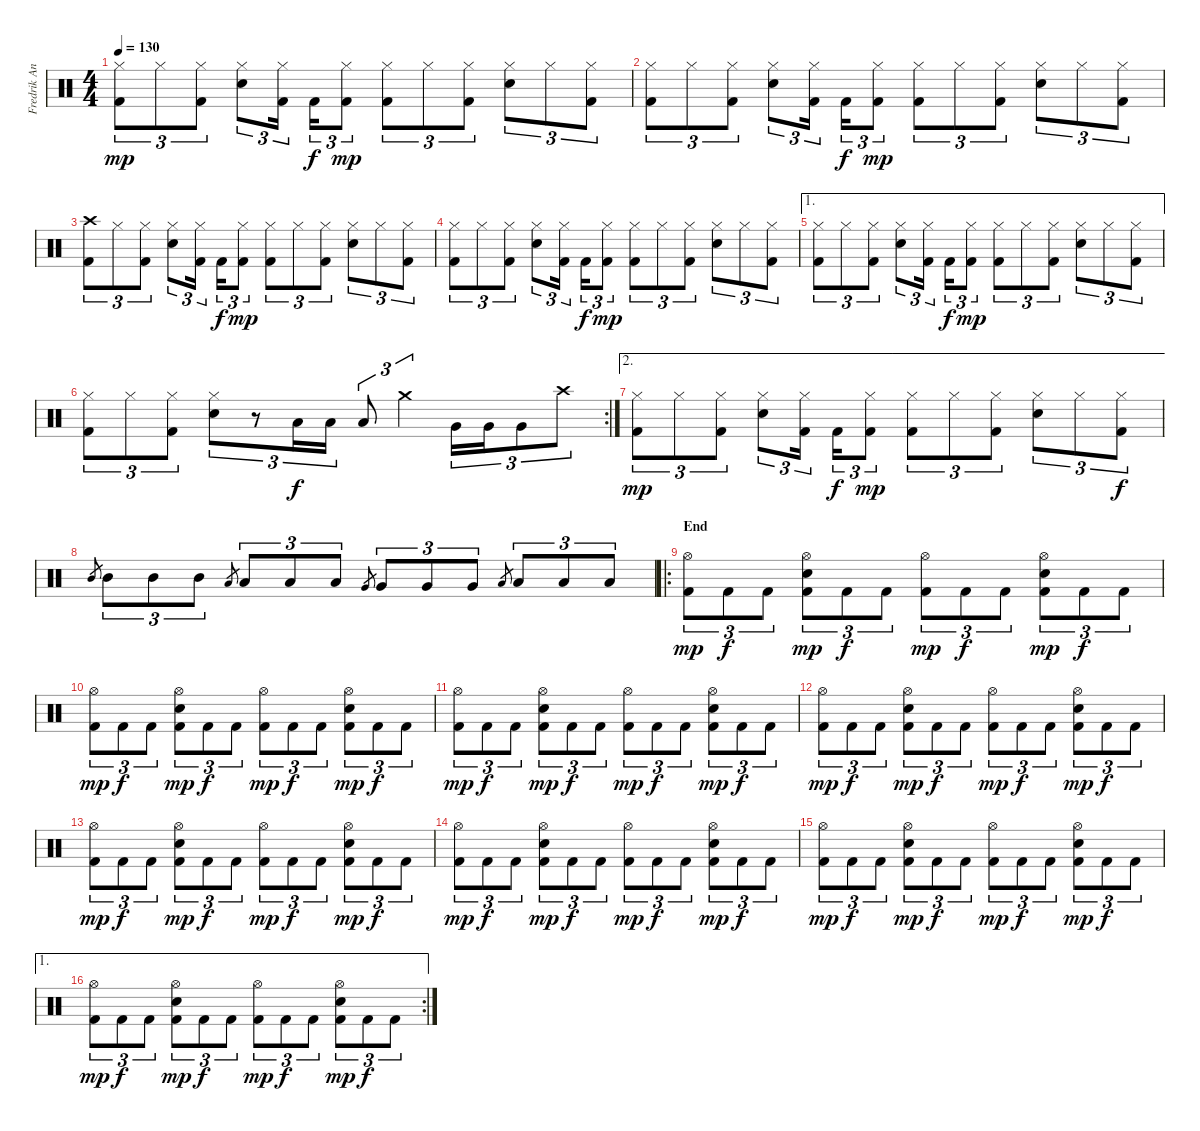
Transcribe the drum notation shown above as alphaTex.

\track ("Fredrik Andersson" "Fredrik An") {instrument percussion}
\staff {score}
\articulation defaults
\ts (4 4)
\tempo 130
\clef neutral
\ks c
("Hi-Hat (closed)" "Kick (hit) 2").8{tu (3 2) dy mp} "Hi-Hat (closed)".8{tu (3 2)} ("Hi-Hat (closed)" "Kick (hit) 2").8{tu (3 2)} ("Hi-Hat (closed)" "Snare (hit) 2").8{tu (3 2)} ("Hi-Hat (closed)" "Kick (hit) 2").16{tu (3 2)} "Kick (hit) 2".16{tu (3 2) dy f} ("Hi-Hat (closed)" "Kick (hit) 2").8{tu (3 2) dy mp} ("Hi-Hat (closed)" "Kick (hit) 2").8{tu (3 2)} "Hi-Hat (closed)".8{tu (3 2)} ("Hi-Hat (closed)" "Kick (hit) 2").8{tu (3 2)} ("Hi-Hat (closed)" "Snare (hit) 2").8{tu (3 2)} "Hi-Hat (closed)".8{tu (3 2)} ("Hi-Hat (closed)" "Kick (hit) 2").8{tu (3 2)} |
("Hi-Hat (closed)" "Kick (hit) 2").8{tu (3 2)} "Hi-Hat (closed)".8{tu (3 2)} ("Hi-Hat (closed)" "Kick (hit) 2").8{tu (3 2)} ("Hi-Hat (closed)" "Snare (hit) 2").8{tu (3 2)} ("Hi-Hat (closed)" "Kick (hit) 2").16{tu (3 2)} "Kick (hit) 2".16{tu (3 2) dy f} ("Hi-Hat (closed)" "Kick (hit) 2").8{tu (3 2) dy mp} ("Hi-Hat (closed)" "Kick (hit) 2").8{tu (3 2)} "Hi-Hat (closed)".8{tu (3 2)} ("Hi-Hat (closed)" "Kick (hit) 2").8{tu (3 2)} ("Hi-Hat (closed)" "Snare (hit) 2").8{tu (3 2)} "Hi-Hat (closed)".8{tu (3 2)} ("Hi-Hat (closed)" "Kick (hit) 2").8{tu (3 2)} |
("Crash high (hit)" "Kick (hit) 2").8{tu (3 2)} "Hi-Hat (closed)".8{tu (3 2)} ("Hi-Hat (closed)" "Kick (hit) 2").8{tu (3 2)} ("Hi-Hat (closed)" "Snare (hit) 2").8{tu (3 2)} ("Hi-Hat (closed)" "Kick (hit) 2").16{tu (3 2)} "Kick (hit) 2".16{tu (3 2) dy f} ("Hi-Hat (closed)" "Kick (hit) 2").8{tu (3 2) dy mp} ("Hi-Hat (closed)" "Kick (hit) 2").8{tu (3 2)} "Hi-Hat (closed)".8{tu (3 2)} ("Hi-Hat (closed)" "Kick (hit) 2").8{tu (3 2)} ("Hi-Hat (closed)" "Snare (hit) 2").8{tu (3 2)} "Hi-Hat (closed)".8{tu (3 2)} ("Hi-Hat (closed)" "Kick (hit) 2").8{tu (3 2)} |
("Hi-Hat (closed)" "Kick (hit) 2").8{tu (3 2)} "Hi-Hat (closed)".8{tu (3 2)} ("Hi-Hat (closed)" "Kick (hit) 2").8{tu (3 2)} ("Hi-Hat (closed)" "Snare (hit) 2").8{tu (3 2)} ("Hi-Hat (closed)" "Kick (hit) 2").16{tu (3 2)} "Kick (hit) 2".16{tu (3 2) dy f} ("Hi-Hat (closed)" "Kick (hit) 2").8{tu (3 2) dy mp} ("Hi-Hat (closed)" "Kick (hit) 2").8{tu (3 2)} "Hi-Hat (closed)".8{tu (3 2)} ("Hi-Hat (closed)" "Kick (hit) 2").8{tu (3 2)} ("Hi-Hat (closed)" "Snare (hit) 2").8{tu (3 2)} "Hi-Hat (closed)".8{tu (3 2)} ("Hi-Hat (closed)" "Kick (hit) 2").8{tu (3 2)} |
\ae 1
("Hi-Hat (closed)" "Kick (hit) 2").8{tu (3 2)} "Hi-Hat (closed)".8{tu (3 2)} ("Hi-Hat (closed)" "Kick (hit) 2").8{tu (3 2)} ("Hi-Hat (closed)" "Snare (hit) 2").8{tu (3 2)} ("Hi-Hat (closed)" "Kick (hit) 2").16{tu (3 2)} "Kick (hit) 2".16{tu (3 2) dy f} ("Hi-Hat (closed)" "Kick (hit) 2").8{tu (3 2) dy mp} ("Hi-Hat (closed)" "Kick (hit) 2").8{tu (3 2)} "Hi-Hat (closed)".8{tu (3 2)} ("Hi-Hat (closed)" "Kick (hit) 2").8{tu (3 2)} ("Hi-Hat (closed)" "Snare (hit) 2").8{tu (3 2)} "Hi-Hat (closed)".8{tu (3 2)} ("Hi-Hat (closed)" "Kick (hit) 2").8{tu (3 2)} |
\rc 2
("Hi-Hat (closed)" "Kick (hit) 2").8{tu (3 2)} "Hi-Hat (closed)".8{tu (3 2)} ("Hi-Hat (closed)" "Kick (hit) 2").8{tu (3 2)} ("Hi-Hat (closed)" "Snare (hit) 2").8{tu (3 2)} r.8{tu (3 2)} "Low Tom (hit)".16{tu (3 2) dy f} "Low Tom (hit)".16{tu (3 2)} "Low Tom (hit)".8{tu (3 2)} "Crash medium (hit)".4{tu (3 2)} "Very Low Tom (hit)".16{tu (3 2)} "Very Low Tom (hit)".16{tu (3 2)} "Very Low Tom (hit)".8{tu (3 2)} "Crash high (hit)".8{tu (3 2)} |
\ae 2
("Hi-Hat (closed)" "Kick (hit) 2").8{tu (3 2) dy mp} "Hi-Hat (closed)".8{tu (3 2)} ("Hi-Hat (closed)" "Kick (hit) 2").8{tu (3 2)} ("Hi-Hat (closed)" "Snare (hit) 2").8{tu (3 2)} ("Hi-Hat (closed)" "Kick (hit) 2").16{tu (3 2)} "Kick (hit) 2".16{tu (3 2) dy f} ("Hi-Hat (closed)" "Kick (hit) 2").8{tu (3 2) dy mp} ("Hi-Hat (closed)" "Kick (hit) 2").8{tu (3 2)} "Hi-Hat (closed)".8{tu (3 2)} ("Hi-Hat (closed)" "Kick (hit) 2").8{tu (3 2)} ("Hi-Hat (closed)" "Snare (hit) 2").8{tu (3 2)} "Hi-Hat (closed)".8{tu (3 2)} ("Hi-Hat (closed)" "Kick (hit) 2").8{tu (3 2) dy f} |
"Mid Tom (hit)".8{gr} "Mid Tom (hit)".8{tu (3 2)} "Mid Tom (hit)".8{tu (3 2)} "Mid Tom (hit)".8{tu (3 2)} "Low Tom (hit)".8{gr} "Low Tom (hit)".8{tu (3 2)} "Low Tom (hit)".8{tu (3 2)} "Low Tom (hit)".8{tu (3 2)} "Very Low Tom (hit)".8{gr} "Very Low Tom (hit)".8{tu (3 2)} "Very Low Tom (hit)".8{tu (3 2)} "Very Low Tom (hit)".8{tu (3 2)} "Low Floor Tom (hit)".8{gr} "Low Floor Tom (hit)".8{tu (3 2)} "Low Floor Tom (hit)".8{tu (3 2)} "Low Floor Tom (hit)".8{tu (3 2)} |
\ro
\section ("" "End")
("Hi-Hat (open)" "Kick (hit) 2").8{tu (3 2) dy mp} "Kick (hit) 2".8{tu (3 2) dy f} "Kick (hit) 2".8{tu (3 2)} ("Hi-Hat (open)" "Snare (hit) 2" "Kick (hit) 2").8{tu (3 2) dy mp} "Kick (hit) 2".8{tu (3 2) dy f} "Kick (hit) 2".8{tu (3 2)} ("Hi-Hat (open)" "Kick (hit) 2").8{tu (3 2) dy mp} "Kick (hit) 2".8{tu (3 2) dy f} "Kick (hit) 2".8{tu (3 2)} ("Hi-Hat (open)" "Snare (hit) 2" "Kick (hit) 2").8{tu (3 2) dy mp} "Kick (hit) 2".8{tu (3 2) dy f} "Kick (hit) 2".8{tu (3 2)} |
("Hi-Hat (open)" "Kick (hit) 2").8{tu (3 2) dy mp} "Kick (hit) 2".8{tu (3 2) dy f} "Kick (hit) 2".8{tu (3 2)} ("Hi-Hat (open)" "Snare (hit) 2" "Kick (hit) 2").8{tu (3 2) dy mp} "Kick (hit) 2".8{tu (3 2) dy f} "Kick (hit) 2".8{tu (3 2)} ("Hi-Hat (open)" "Kick (hit) 2").8{tu (3 2) dy mp} "Kick (hit) 2".8{tu (3 2) dy f} "Kick (hit) 2".8{tu (3 2)} ("Hi-Hat (open)" "Snare (hit) 2" "Kick (hit) 2").8{tu (3 2) dy mp} "Kick (hit) 2".8{tu (3 2) dy f} "Kick (hit) 2".8{tu (3 2)} |
("Hi-Hat (open)" "Kick (hit) 2").8{tu (3 2) dy mp} "Kick (hit) 2".8{tu (3 2) dy f} "Kick (hit) 2".8{tu (3 2)} ("Hi-Hat (open)" "Snare (hit) 2" "Kick (hit) 2").8{tu (3 2) dy mp} "Kick (hit) 2".8{tu (3 2) dy f} "Kick (hit) 2".8{tu (3 2)} ("Hi-Hat (open)" "Kick (hit) 2").8{tu (3 2) dy mp} "Kick (hit) 2".8{tu (3 2) dy f} "Kick (hit) 2".8{tu (3 2)} ("Hi-Hat (open)" "Snare (hit) 2" "Kick (hit) 2").8{tu (3 2) dy mp} "Kick (hit) 2".8{tu (3 2) dy f} "Kick (hit) 2".8{tu (3 2)} |
("Hi-Hat (open)" "Kick (hit) 2").8{tu (3 2) dy mp} "Kick (hit) 2".8{tu (3 2) dy f} "Kick (hit) 2".8{tu (3 2)} ("Hi-Hat (open)" "Snare (hit) 2" "Kick (hit) 2").8{tu (3 2) dy mp} "Kick (hit) 2".8{tu (3 2) dy f} "Kick (hit) 2".8{tu (3 2)} ("Hi-Hat (open)" "Kick (hit) 2").8{tu (3 2) dy mp} "Kick (hit) 2".8{tu (3 2) dy f} "Kick (hit) 2".8{tu (3 2)} ("Hi-Hat (open)" "Snare (hit) 2" "Kick (hit) 2").8{tu (3 2) dy mp} "Kick (hit) 2".8{tu (3 2) dy f} "Kick (hit) 2".8{tu (3 2)} |
("Hi-Hat (open)" "Kick (hit) 2").8{tu (3 2) dy mp} "Kick (hit) 2".8{tu (3 2) dy f} "Kick (hit) 2".8{tu (3 2)} ("Hi-Hat (open)" "Snare (hit) 2" "Kick (hit) 2").8{tu (3 2) dy mp} "Kick (hit) 2".8{tu (3 2) dy f} "Kick (hit) 2".8{tu (3 2)} ("Hi-Hat (open)" "Kick (hit) 2").8{tu (3 2) dy mp} "Kick (hit) 2".8{tu (3 2) dy f} "Kick (hit) 2".8{tu (3 2)} ("Hi-Hat (open)" "Snare (hit) 2" "Kick (hit) 2").8{tu (3 2) dy mp} "Kick (hit) 2".8{tu (3 2) dy f} "Kick (hit) 2".8{tu (3 2)} |
("Hi-Hat (open)" "Kick (hit) 2").8{tu (3 2) dy mp} "Kick (hit) 2".8{tu (3 2) dy f} "Kick (hit) 2".8{tu (3 2)} ("Hi-Hat (open)" "Snare (hit) 2" "Kick (hit) 2").8{tu (3 2) dy mp} "Kick (hit) 2".8{tu (3 2) dy f} "Kick (hit) 2".8{tu (3 2)} ("Hi-Hat (open)" "Kick (hit) 2").8{tu (3 2) dy mp} "Kick (hit) 2".8{tu (3 2) dy f} "Kick (hit) 2".8{tu (3 2)} ("Hi-Hat (open)" "Snare (hit) 2" "Kick (hit) 2").8{tu (3 2) dy mp} "Kick (hit) 2".8{tu (3 2) dy f} "Kick (hit) 2".8{tu (3 2)} |
("Hi-Hat (open)" "Kick (hit) 2").8{tu (3 2) dy mp} "Kick (hit) 2".8{tu (3 2) dy f} "Kick (hit) 2".8{tu (3 2)} ("Hi-Hat (open)" "Snare (hit) 2" "Kick (hit) 2").8{tu (3 2) dy mp} "Kick (hit) 2".8{tu (3 2) dy f} "Kick (hit) 2".8{tu (3 2)} ("Hi-Hat (open)" "Kick (hit) 2").8{tu (3 2) dy mp} "Kick (hit) 2".8{tu (3 2) dy f} "Kick (hit) 2".8{tu (3 2)} ("Hi-Hat (open)" "Snare (hit) 2" "Kick (hit) 2").8{tu (3 2) dy mp} "Kick (hit) 2".8{tu (3 2) dy f} "Kick (hit) 2".8{tu (3 2)} |
\ae 1
\rc 2
("Hi-Hat (open)" "Kick (hit) 2").8{tu (3 2) dy mp} "Kick (hit) 2".8{tu (3 2) dy f} "Kick (hit) 2".8{tu (3 2)} ("Hi-Hat (open)" "Snare (hit) 2" "Kick (hit) 2").8{tu (3 2) dy mp} "Kick (hit) 2".8{tu (3 2) dy f} "Kick (hit) 2".8{tu (3 2)} ("Hi-Hat (open)" "Kick (hit) 2").8{tu (3 2) dy mp} "Kick (hit) 2".8{tu (3 2) dy f} "Kick (hit) 2".8{tu (3 2)} ("Hi-Hat (open)" "Snare (hit) 2" "Kick (hit) 2").8{tu (3 2) dy mp} "Kick (hit) 2".8{tu (3 2) dy f} "Kick (hit) 2".8{tu (3 2)}
